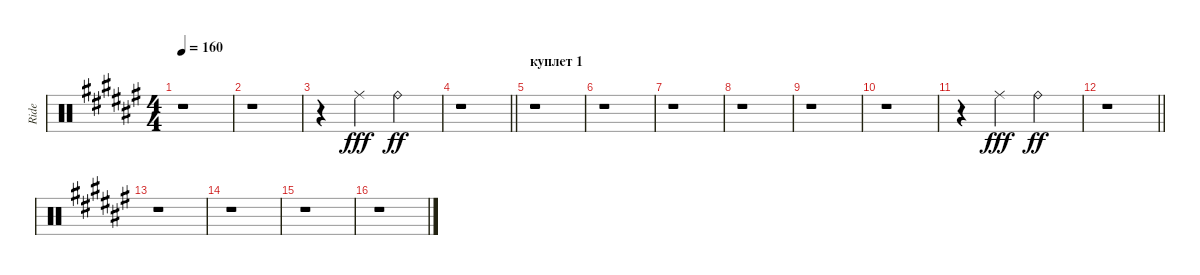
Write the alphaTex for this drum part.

\track ("Ride" "Ride") {instrument percussion}
\staff {score}
\articulation defaults
\ts (4 4)
\tempo 160
\clef neutral
\ks d#minor
r.1{dy fff} |
r.1 |
r.4 "Ride (middle)".4 "Ride (bell)".2{dy ff} |
\barLineRight lightlight
r.1 |
\section ("" "куплет 1")
r.1 |
r.1 |
r.1 |
r.1 |
r.1 |
r.1 |
r.4 "Ride (middle)".4{dy fff} "Ride (bell)".2{dy ff} |
\barLineRight lightlight
r.1 |
r.1 |
r.1 |
r.1 |
r.1
